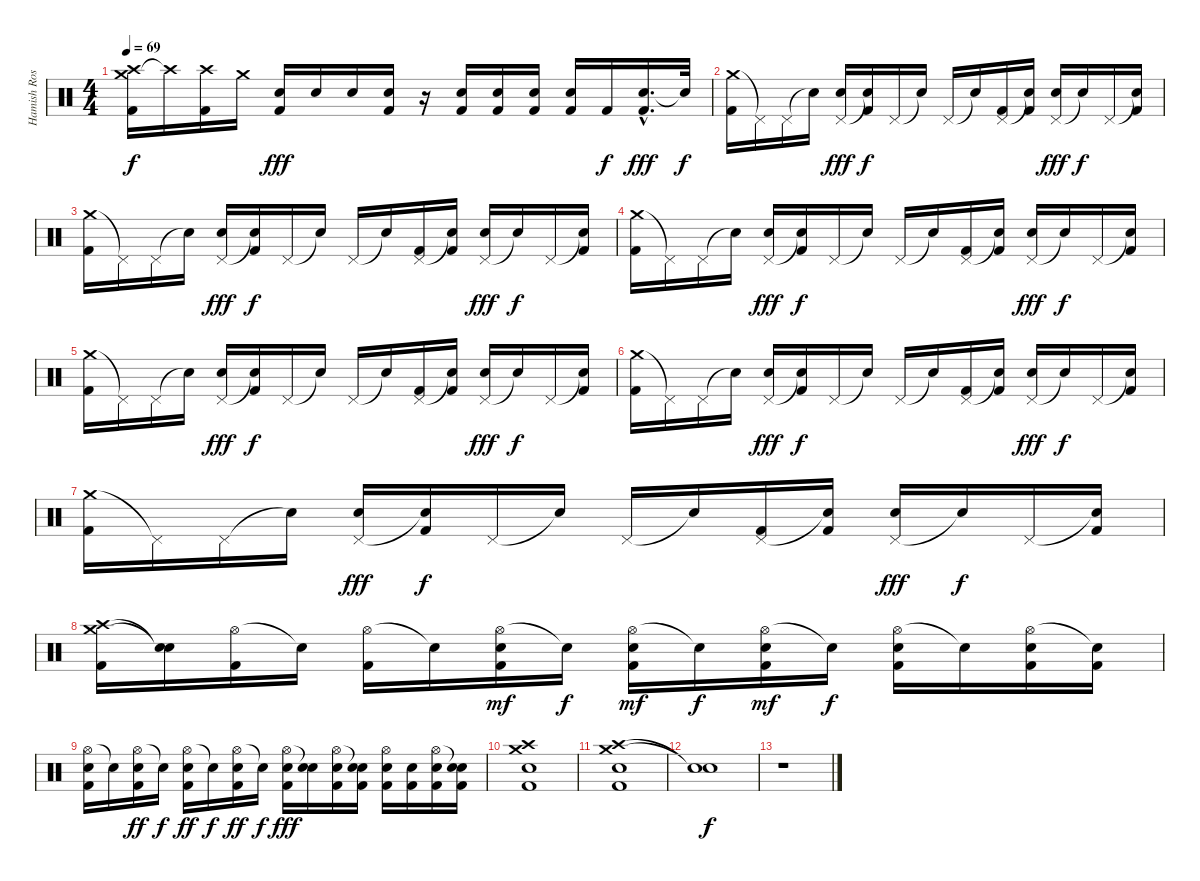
\track ("Hamish Rosser" "Hamish Ros") {instrument percussion}
\staff {score}
\articulation defaults
\ts (4 4)
\tempo 69
\clef neutral
\ks c
("Crash medium (hit)" "Crash high (hit)" "Kick (hit) 2").16{dy f} "Crash high (hit)"{t}.16 ("Crash high (hit)" "Kick (hit) 2").16 "Crash medium (hit)".16 ("Electric Snare (hit)" "Kick (hit) 2").16{dy fff} "Electric Snare (hit)".16 "Electric Snare (hit)".16 ("Electric Snare (hit)" "Kick (hit) 2").16 r.16 ("Electric Snare (hit)" "Kick (hit) 2").16 ("Electric Snare (hit)" "Kick (hit) 2").16 ("Electric Snare (hit)" "Kick (hit) 2").16 ("Electric Snare (hit)" "Kick (hit) 2").16 "Kick (hit) 2".16{dy f} ("Electric Snare (hit)"{hac} "Kick (hit) 2"{hac}).16{d dy fff} "Snare (hit)"{t}.32{dy f} |
("Crash medium (hit)" "Kick (hit) 2").16 "Pedal Hi-Hat (hit)"{t}.16 "Pedal Hi-Hat (hit)".16 "Snare (hit)"{t}.16 ("Pedal Hi-Hat (hit)" "Electric Snare (hit)").16{dy fff} ("Snare (hit)"{t} "Kick (hit) 2").16{dy f} "Pedal Hi-Hat (hit)".16 "Snare (hit)"{t}.16 "Pedal Hi-Hat (hit)".16 "Snare (hit)"{t}.16 ("Pedal Hi-Hat (hit)" "Kick (hit) 2").16 ("Snare (hit)"{t} "Kick (hit) 2").16 ("Pedal Hi-Hat (hit)" "Electric Snare (hit)").16{dy fff} "Snare (hit)"{t}.16{dy f} "Pedal Hi-Hat (hit)".16 ("Snare (hit)"{t} "Kick (hit) 2").16 |
("Crash medium (hit)" "Kick (hit) 2").16 "Pedal Hi-Hat (hit)"{t}.16 "Pedal Hi-Hat (hit)".16 "Snare (hit)"{t}.16 ("Pedal Hi-Hat (hit)" "Electric Snare (hit)").16{dy fff} ("Snare (hit)"{t} "Kick (hit) 2").16{dy f} "Pedal Hi-Hat (hit)".16 "Snare (hit)"{t}.16 "Pedal Hi-Hat (hit)".16 "Snare (hit)"{t}.16 ("Pedal Hi-Hat (hit)" "Kick (hit) 2").16 ("Snare (hit)"{t} "Kick (hit) 2").16 ("Pedal Hi-Hat (hit)" "Electric Snare (hit)").16{dy fff} "Snare (hit)"{t}.16{dy f} "Pedal Hi-Hat (hit)".16 ("Snare (hit)"{t} "Kick (hit) 2").16 |
("Crash medium (hit)" "Kick (hit) 2").16 "Pedal Hi-Hat (hit)"{t}.16 "Pedal Hi-Hat (hit)".16 "Snare (hit)"{t}.16 ("Pedal Hi-Hat (hit)" "Electric Snare (hit)").16{dy fff} ("Snare (hit)"{t} "Kick (hit) 2").16{dy f} "Pedal Hi-Hat (hit)".16 "Snare (hit)"{t}.16 "Pedal Hi-Hat (hit)".16 "Snare (hit)"{t}.16 ("Pedal Hi-Hat (hit)" "Kick (hit) 2").16 ("Snare (hit)"{t} "Kick (hit) 2").16 ("Pedal Hi-Hat (hit)" "Electric Snare (hit)").16{dy fff} "Snare (hit)"{t}.16{dy f} "Pedal Hi-Hat (hit)".16 ("Snare (hit)"{t} "Kick (hit) 2").16 |
("Crash medium (hit)" "Kick (hit) 2").16 "Pedal Hi-Hat (hit)"{t}.16 "Pedal Hi-Hat (hit)".16 "Snare (hit)"{t}.16 ("Pedal Hi-Hat (hit)" "Electric Snare (hit)").16{dy fff} ("Snare (hit)"{t} "Kick (hit) 2").16{dy f} "Pedal Hi-Hat (hit)".16 "Snare (hit)"{t}.16 "Pedal Hi-Hat (hit)".16 "Snare (hit)"{t}.16 ("Pedal Hi-Hat (hit)" "Kick (hit) 2").16 ("Snare (hit)"{t} "Kick (hit) 2").16 ("Pedal Hi-Hat (hit)" "Electric Snare (hit)").16{dy fff} "Snare (hit)"{t}.16{dy f} "Pedal Hi-Hat (hit)".16 ("Snare (hit)"{t} "Kick (hit) 2").16 |
("Crash medium (hit)" "Kick (hit) 2").16 "Pedal Hi-Hat (hit)"{t}.16 "Pedal Hi-Hat (hit)".16 "Snare (hit)"{t}.16 ("Pedal Hi-Hat (hit)" "Electric Snare (hit)").16{dy fff} ("Snare (hit)"{t} "Kick (hit) 2").16{dy f} "Pedal Hi-Hat (hit)".16 "Snare (hit)"{t}.16 "Pedal Hi-Hat (hit)".16 "Snare (hit)"{t}.16 ("Pedal Hi-Hat (hit)" "Kick (hit) 2").16 ("Snare (hit)"{t} "Kick (hit) 2").16 ("Pedal Hi-Hat (hit)" "Electric Snare (hit)").16{dy fff} "Snare (hit)"{t}.16{dy f} "Pedal Hi-Hat (hit)".16 ("Snare (hit)"{t} "Kick (hit) 2").16 |
("Crash medium (hit)" "Kick (hit) 2").16 "Pedal Hi-Hat (hit)"{t}.16 "Pedal Hi-Hat (hit)".16 "Snare (hit)"{t}.16 ("Pedal Hi-Hat (hit)" "Electric Snare (hit)").16{dy fff} ("Snare (hit)"{t} "Kick (hit) 2").16{dy f} "Pedal Hi-Hat (hit)".16 "Snare (hit)"{t}.16 "Pedal Hi-Hat (hit)".16 "Snare (hit)"{t}.16 ("Pedal Hi-Hat (hit)" "Kick (hit) 2").16 ("Snare (hit)"{t} "Kick (hit) 2").16 ("Pedal Hi-Hat (hit)" "Electric Snare (hit)").16{dy fff} "Snare (hit)"{t}.16{dy f} "Pedal Hi-Hat (hit)".16 ("Snare (hit)"{t} "Kick (hit) 2").16 |
("Crash medium (hit)" "Crash high (hit)" "Kick (hit) 2").16 ("Snare (hit)"{t} "Snare (hit)"{t}).16 ("Hi-Hat (open)" "Kick (hit) 2").16 "Snare (hit)"{t}.16 ("Hi-Hat (open)" "Kick (hit) 2").16 "Snare (hit)"{t}.16 ("Hi-Hat (open)" "Snare (hit) 2" "Kick (hit) 2").16{dy mf} "Snare (hit)"{t}.16{dy f} ("Hi-Hat (open)" "Snare (hit) 2" "Kick (hit) 2").16{dy mf} "Snare (hit)"{t}.16{dy f} ("Hi-Hat (open)" "Snare (hit) 2" "Kick (hit) 2").16{dy mf} "Snare (hit)"{t}.16{dy f} ("Hi-Hat (open)" "Snare (hit) 2" "Kick (hit) 2").16 "Snare (hit)"{t}.16 ("Hi-Hat (open)" "Snare (hit) 2" "Kick (hit) 2").16 ("Snare (hit)"{t} "Kick (hit) 2").16 |
("Hi-Hat (open)" "Electric Snare (hit)" "Kick (hit) 2").16 "Snare (hit)"{t}.16 ("Hi-Hat (open)" "Electric Snare (hit)" "Kick (hit) 2").16{dy ff} "Snare (hit)"{t}.16{dy f} ("Hi-Hat (open)" "Electric Snare (hit)" "Kick (hit) 2").16{dy ff} "Snare (hit)"{t}.16{dy f} ("Hi-Hat (open)" "Electric Snare (hit)" "Kick (hit) 2").16{dy ff} "Snare (hit)"{t}.16{dy f} ("Hi-Hat (open)" "Electric Snare (hit)" "Kick (hit) 2").16{dy fff} ("Snare (hit)"{t} "Electric Snare (hit)").16 ("Hi-Hat (open)" "Electric Snare (hit)" "Kick (hit) 2").16 ("Snare (hit)"{t} "Electric Snare (hit)" "Kick (hit) 2").16 ("Hi-Hat (open)" "Electric Snare (hit)" "Kick (hit) 2").16 ("Electric Snare (hit)" "Kick (hit) 2").16 ("Hi-Hat (open)" "Electric Snare (hit)" "Kick (hit) 2").16 ("Snare (hit)"{t} "Electric Snare (hit)" "Kick (hit) 2").16 |
("Crash medium (hit)" "Crash high (hit)" "Snare (hit) 2" "Kick (hit) 2").1 |
("Crash medium (hit)" "Crash high (hit)" "Snare (hit) 2" "Kick (hit) 2").1 |
("Snare (hit)"{t} "Snare (hit)"{t}).1{dy f} |
r.1
